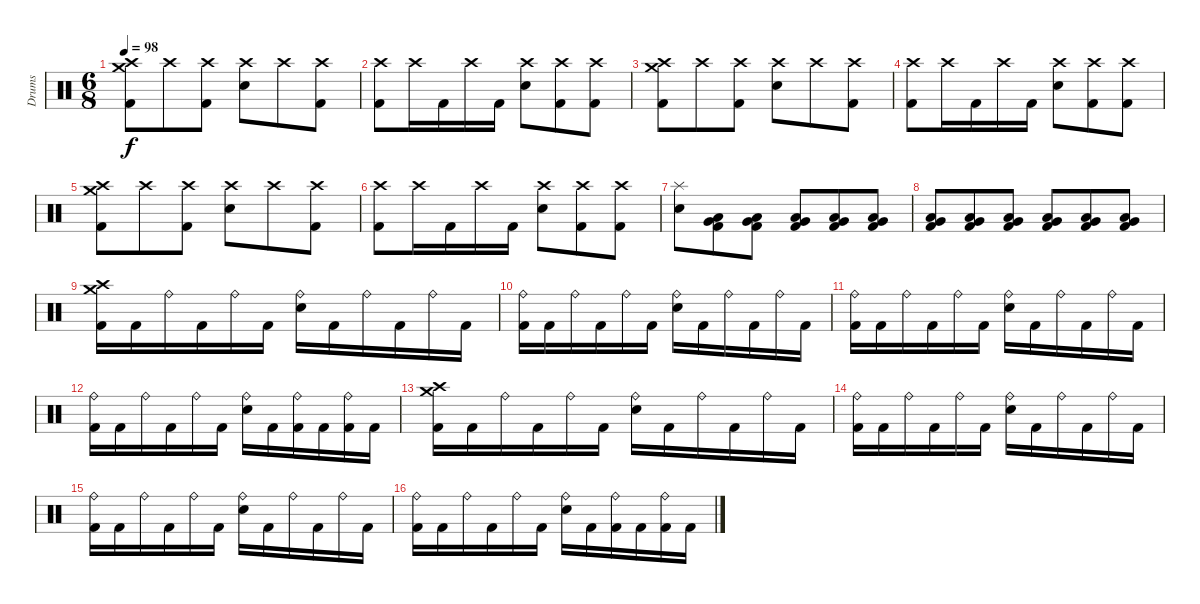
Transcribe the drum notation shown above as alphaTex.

\track ("Drums" "Drums") {instrument percussion}
\staff {score}
\articulation defaults
\ts (6 8)
\tempo 98
\clef neutral
\ks c
("Crash high (hit)" "Crash medium (hit)" "Kick (hit) 2").8{dy f} "Crash high (hit)".8 ("Crash high (hit)" "Kick (hit) 2").8 ("Crash high (hit)" "Electric Snare (hit)").8 "Crash high (hit)".8 ("Crash high (hit)" "Kick (hit) 2").8 |
("Crash high (hit)" "Kick (hit) 2").8 "Crash high (hit)".16 "Kick (hit) 2".16 "Crash high (hit)".16 "Kick (hit) 2".16 ("Crash high (hit)" "Electric Snare (hit)").8 ("Crash high (hit)" "Kick (hit) 2").8 ("Crash high (hit)" "Kick (hit) 2").8 |
("Crash high (hit)" "Crash medium (hit)" "Kick (hit) 2").8 "Crash high (hit)".8 ("Crash high (hit)" "Kick (hit) 2").8 ("Crash high (hit)" "Electric Snare (hit)").8 "Crash high (hit)".8 ("Crash high (hit)" "Kick (hit) 2").8 |
("Crash high (hit)" "Kick (hit) 2").8 "Crash high (hit)".16 "Kick (hit) 2".16 "Crash high (hit)".16 "Kick (hit) 2".16 ("Crash high (hit)" "Electric Snare (hit)").8 ("Crash high (hit)" "Kick (hit) 2").8 ("Crash high (hit)" "Kick (hit) 2").8 |
("Crash high (hit)" "Crash medium (hit)" "Kick (hit) 2").8 "Crash high (hit)".8 ("Crash high (hit)" "Kick (hit) 2").8 ("Crash high (hit)" "Electric Snare (hit)").8 "Crash high (hit)".8 ("Crash high (hit)" "Kick (hit) 2").8 |
("Crash high (hit)" "Kick (hit) 2").8 "Crash high (hit)".16 "Kick (hit) 2".16 "Crash high (hit)".16 "Kick (hit) 2".16 ("Crash high (hit)" "Electric Snare (hit)").8 ("Crash high (hit)" "Kick (hit) 2").8 ("Crash high (hit)" "Kick (hit) 2").8 |
("Splash (hit)" "Electric Snare (hit)").8{volume 10} ("Low Tom (hit)" "Very Low Tom (hit)" "Kick (hit) 2").8{volume 16} ("Low Tom (hit)" "Very Low Tom (hit)" "Kick (hit) 2").8 ("Low Tom (hit)" "Very Low Tom (hit)" "Kick (hit) 2").8 ("Low Tom (hit)" "Very Low Tom (hit)" "Kick (hit) 2").8 ("Low Tom (hit)" "Very Low Tom (hit)" "Kick (hit) 2").8 |
("Low Tom (hit)" "Very Low Tom (hit)" "Kick (hit) 2").8 ("Low Tom (hit)" "Very Low Tom (hit)" "Kick (hit) 2").8 ("Low Tom (hit)" "Very Low Tom (hit)" "Kick (hit) 2").8 ("Low Tom (hit)" "Very Low Tom (hit)" "Kick (hit) 2").8 ("Low Tom (hit)" "Very Low Tom (hit)" "Kick (hit) 2").8 ("Low Tom (hit)" "Very Low Tom (hit)" "Kick (hit) 2").8 |
("Crash high (hit)" "Crash medium (hit)" "Kick (hit) 2").16 "Kick (hit) 2".16 "Ride (bell)".16 "Kick (hit) 2".16 "Ride (bell)".16 "Kick (hit) 2".16 ("Ride (bell)" "Electric Snare (hit)").16 "Kick (hit) 2".16 "Ride (bell)".16 "Kick (hit) 2".16 "Ride (bell)".16 "Kick (hit) 2".16 |
("Ride (bell)" "Kick (hit) 2").16 "Kick (hit) 2".16 "Ride (bell)".16 "Kick (hit) 2".16 "Ride (bell)".16 "Kick (hit) 2".16 ("Ride (bell)" "Electric Snare (hit)").16 "Kick (hit) 2".16 "Ride (bell)".16 "Kick (hit) 2".16 "Ride (bell)".16 "Kick (hit) 2".16 |
("Ride (bell)" "Kick (hit) 2").16 "Kick (hit) 2".16 "Ride (bell)".16 "Kick (hit) 2".16 "Ride (bell)".16 "Kick (hit) 2".16 ("Ride (bell)" "Electric Snare (hit)").16 "Kick (hit) 2".16 "Ride (bell)".16 "Kick (hit) 2".16 "Ride (bell)".16 "Kick (hit) 2".16 |
("Ride (bell)" "Kick (hit) 2").16 "Kick (hit) 2".16 "Ride (bell)".16 "Kick (hit) 2".16 "Ride (bell)".16 "Kick (hit) 2".16 ("Ride (bell)" "Electric Snare (hit)").16 "Kick (hit) 2".16 ("Ride (bell)" "Kick (hit) 2").16 "Kick (hit) 2".16 ("Ride (bell)" "Kick (hit) 2").16 "Kick (hit) 2".16 |
("Crash high (hit)" "Crash medium (hit)" "Kick (hit) 2").16 "Kick (hit) 2".16 "Ride (bell)".16 "Kick (hit) 2".16 "Ride (bell)".16 "Kick (hit) 2".16 ("Ride (bell)" "Electric Snare (hit)").16 "Kick (hit) 2".16 "Ride (bell)".16 "Kick (hit) 2".16 "Ride (bell)".16 "Kick (hit) 2".16 |
("Ride (bell)" "Kick (hit) 2").16 "Kick (hit) 2".16 "Ride (bell)".16 "Kick (hit) 2".16 "Ride (bell)".16 "Kick (hit) 2".16 ("Ride (bell)" "Electric Snare (hit)").16 "Kick (hit) 2".16 "Ride (bell)".16 "Kick (hit) 2".16 "Ride (bell)".16 "Kick (hit) 2".16 |
("Ride (bell)" "Kick (hit) 2").16 "Kick (hit) 2".16 "Ride (bell)".16 "Kick (hit) 2".16 "Ride (bell)".16 "Kick (hit) 2".16 ("Ride (bell)" "Electric Snare (hit)").16 "Kick (hit) 2".16 "Ride (bell)".16 "Kick (hit) 2".16 "Ride (bell)".16 "Kick (hit) 2".16 |
("Ride (bell)" "Kick (hit) 2").16 "Kick (hit) 2".16 "Ride (bell)".16 "Kick (hit) 2".16 "Ride (bell)".16 "Kick (hit) 2".16 ("Ride (bell)" "Electric Snare (hit)").16 "Kick (hit) 2".16 ("Ride (bell)" "Kick (hit) 2").16 "Kick (hit) 2".16 ("Ride (bell)" "Kick (hit) 2").16 "Kick (hit) 2".16
